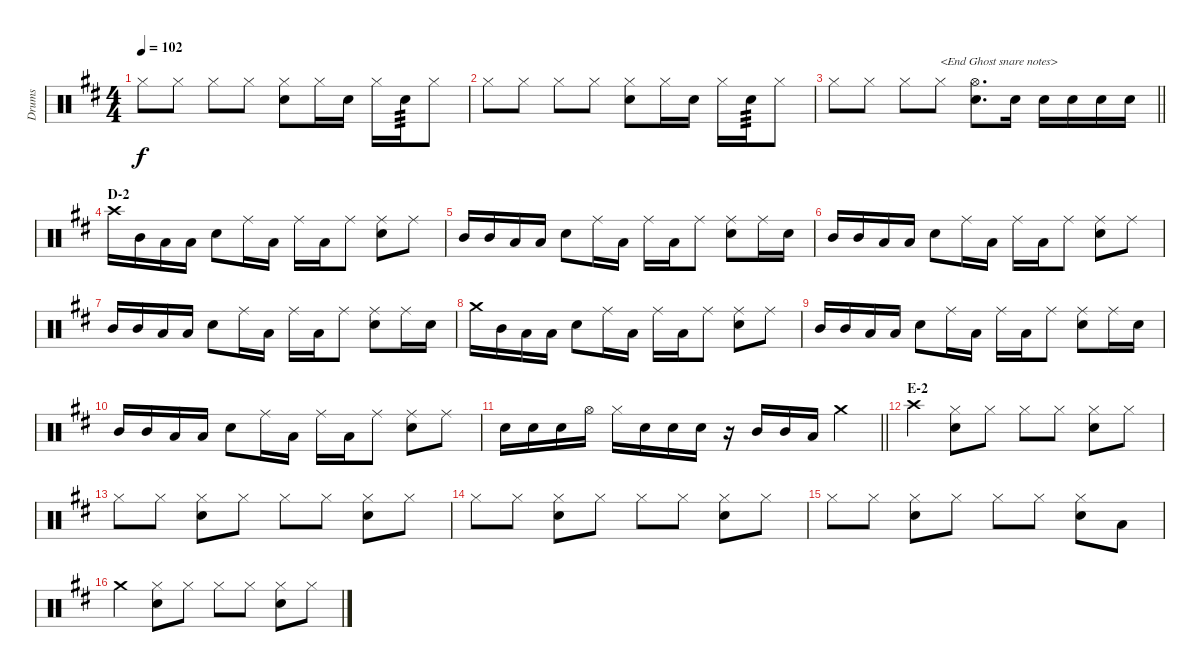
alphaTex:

\track ("Drums" "Drums") {instrument percussion}
\staff {score}
\articulation defaults
\ts (4 4)
\tempo 102
\clef neutral
\ks d "Hi-Hat (closed)".8{dy f} "Hi-Hat (closed)".8 "Hi-Hat (closed)".8 "Hi-Hat (closed)".8
("Hi-Hat (closed)" "Snare (hit) 2").8 "Hi-Hat (closed)".16 "Snare (hit) 2".16 "Hi-Hat (closed)".16 "Snare (hit) 2".16{tp 3} "Hi-Hat (closed)".8 |
"Hi-Hat (closed)".8 "Hi-Hat (closed)".8 "Hi-Hat (closed)".8 "Hi-Hat (closed)".8 ("Hi-Hat (closed)" "Snare (hit) 2").8 "Hi-Hat (closed)".16 "Snare (hit) 2".16 "Hi-Hat (closed)".16 "Snare (hit) 2".16{tp 3} "Hi-Hat (closed)".8 |
\barLineRight lightlight "Hi-Hat (closed)".8 "Hi-Hat (closed)".8 "Hi-Hat (closed)".8 "Hi-Hat (closed)".8{txt "<End Ghost snare notes>"}
("Hi-Hat (open)" "Snare (hit) 2").8{d} "Snare (hit) 2".16 "Snare (hit) 2".16 "Snare (hit) 2".16 "Snare (hit) 2".16 "Snare (hit) 2".16 |
\section ("" "D-2")
"Crash high (hit)".16 "Mid Tom (hit)".16 "Low Tom (hit)".16 "Low Tom (hit)".16 "Snare (hit) 2".8 "Ride (middle)".16 "Low Tom (hit)".16 "Ride (middle)".16 "Low Tom (hit)".16 "Ride (middle)".8 ("Ride (middle)" "Snare (hit) 2").8 "Ride (middle)".8 |
"Mid Tom (hit)".16 "Mid Tom (hit)".16 "Low Tom (hit)".16 "Low Tom (hit)".16 "Snare (hit) 2".8 "Ride (middle)".16 "Low Tom (hit)".16 "Ride (middle)".16 "Low Tom (hit)".16 "Ride (middle)".8 ("Ride (middle)" "Snare (hit) 2").8 "Ride (middle)".16 "Snare (hit) 2".16 |
"Mid Tom (hit)".16 "Mid Tom (hit)".16 "Low Tom (hit)".16 "Low Tom (hit)".16 "Snare (hit) 2".8 "Ride (middle)".16 "Low Tom (hit)".16 "Ride (middle)".16 "Low Tom (hit)".16 "Ride (middle)".8 ("Ride (middle)" "Snare (hit) 2").8 "Ride (middle)".8 |
"Mid Tom (hit)".16 "Mid Tom (hit)".16 "Low Tom (hit)".16 "Low Tom (hit)".16 "Snare (hit) 2".8 "Ride (middle)".16 "Low Tom (hit)".16 "Ride (middle)".16 "Low Tom (hit)".16 "Ride (middle)".8 ("Ride (middle)" "Snare (hit) 2").8 "Ride (middle)".16 "Snare (hit) 2".16 |
"Crash medium (hit)".16 "Mid Tom (hit)".16 "Low Tom (hit)".16 "Low Tom (hit)".16 "Snare (hit) 2".8 "Ride (middle)".16 "Low Tom (hit)".16 "Ride (middle)".16 "Low Tom (hit)".16 "Ride (middle)".8 ("Ride (middle)" "Snare (hit) 2").8 "Ride (middle)".8 |
"Mid Tom (hit)".16 "Mid Tom (hit)".16 "Low Tom (hit)".16 "Low Tom (hit)".16 "Snare (hit) 2".8 "Ride (middle)".16 "Low Tom (hit)".16 "Ride (middle)".16 "Low Tom (hit)".16 "Ride (middle)".8 ("Ride (middle)" "Snare (hit) 2").8 "Ride (middle)".16 "Snare (hit) 2".16 |
"Mid Tom (hit)".16 "Mid Tom (hit)".16 "Low Tom (hit)".16 "Low Tom (hit)".16 "Snare (hit) 2".8 "Ride (middle)".16 "Low Tom (hit)".16 "Ride (middle)".16 "Low Tom (hit)".16 "Ride (middle)".8 ("Ride (middle)" "Snare (hit) 2").8 "Ride (middle)".8 |
\barLineRight lightlight "Snare (hit) 2".16 "Snare (hit) 2".16 "Snare (hit) 2".16 "Hi-Hat (open)".16 "Hi-Hat (closed)".16 "Snare (hit) 2".16 "Snare (hit) 2".16 "Snare (hit) 2".16
r.16 "Mid Tom (hit)".16 "Mid Tom (hit)".16 "Low Tom (hit)".16 "Crash medium (hit)".4 |
\section ("" "E-2")
"Crash high (hit)".4 ("Hi-Hat (closed)" "Snare (hit) 2").8 "Hi-Hat (closed)".8 "Hi-Hat (closed)".8 "Hi-Hat (closed)".8 ("Hi-Hat (closed)" "Snare (hit) 2").8 "Hi-Hat (closed)".8 |
"Hi-Hat (closed)".8 "Hi-Hat (closed)".8 ("Hi-Hat (closed)" "Snare (hit) 2").8 "Hi-Hat (closed)".8 "Hi-Hat (closed)".8 "Hi-Hat (closed)".8 ("Hi-Hat (closed)" "Snare (hit) 2").8 "Hi-Hat (closed)".8 |
"Hi-Hat (closed)".8 "Hi-Hat (closed)".8 ("Hi-Hat (closed)" "Snare (hit) 2").8 "Hi-Hat (closed)".8 "Hi-Hat (closed)".8 "Hi-Hat (closed)".8 ("Hi-Hat (closed)" "Snare (hit) 2").8 "Hi-Hat (closed)".8 |
"Hi-Hat (closed)".8 "Hi-Hat (closed)".8 ("Hi-Hat (closed)" "Snare (hit) 2").8 "Hi-Hat (closed)".8 "Hi-Hat (closed)".8 "Hi-Hat (closed)".8 ("Hi-Hat (closed)" "Snare (hit) 2").8 "Low Tom (hit)".8 |
"Crash medium (hit)".4 ("Hi-Hat (closed)" "Snare (hit) 2").8 "Hi-Hat (closed)".8 "Hi-Hat (closed)".8 "Hi-Hat (closed)".8 ("Hi-Hat (closed)" "Snare (hit) 2").8 "Hi-Hat (closed)".8
